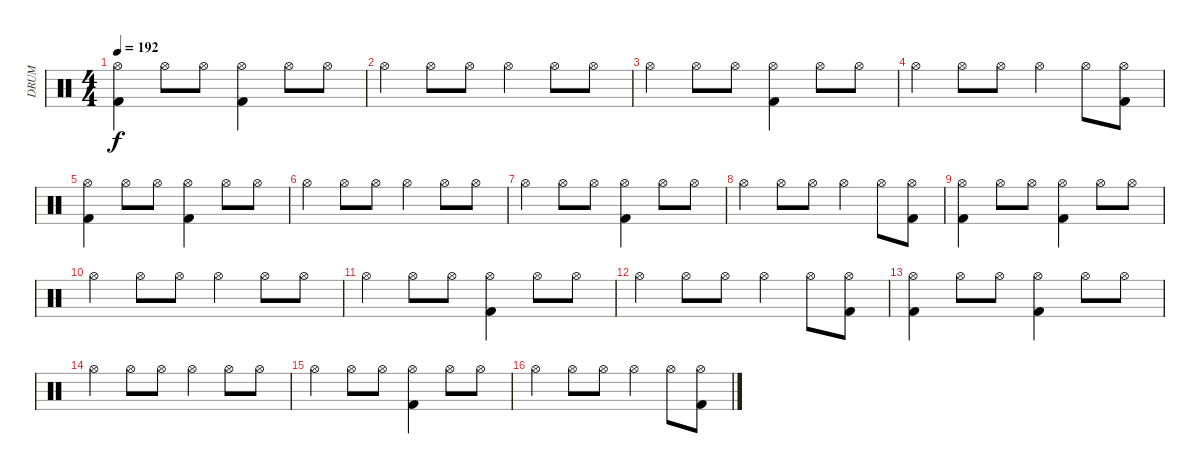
\track ("     DRUM" "     DRUM") {instrument percussion}
\staff {score}
\articulation defaults
\ts (4 4)
\tempo 192
\clef neutral
\ks c
("Kick (hit) 2" "Hi-Hat (open)").4{dy f} "Hi-Hat (open)".8 "Hi-Hat (open)".8 ("Kick (hit) 2" "Hi-Hat (open)").4 "Hi-Hat (open)".8 "Hi-Hat (open)".8 |
"Hi-Hat (open)".4 "Hi-Hat (open)".8 "Hi-Hat (open)".8 "Hi-Hat (open)".4 "Hi-Hat (open)".8 "Hi-Hat (open)".8 |
"Hi-Hat (open)".4 "Hi-Hat (open)".8 "Hi-Hat (open)".8 ("Kick (hit) 2" "Hi-Hat (open)").4 "Hi-Hat (open)".8 "Hi-Hat (open)".8 |
"Hi-Hat (open)".4 "Hi-Hat (open)".8 "Hi-Hat (open)".8 "Hi-Hat (open)".4 "Hi-Hat (open)".8 ("Kick (hit) 2" "Hi-Hat (open)").8 |
("Kick (hit) 2" "Hi-Hat (open)").4 "Hi-Hat (open)".8 "Hi-Hat (open)".8 ("Kick (hit) 2" "Hi-Hat (open)").4 "Hi-Hat (open)".8 "Hi-Hat (open)".8 |
"Hi-Hat (open)".4 "Hi-Hat (open)".8 "Hi-Hat (open)".8 "Hi-Hat (open)".4 "Hi-Hat (open)".8 "Hi-Hat (open)".8 |
"Hi-Hat (open)".4 "Hi-Hat (open)".8 "Hi-Hat (open)".8 ("Kick (hit) 2" "Hi-Hat (open)").4 "Hi-Hat (open)".8 "Hi-Hat (open)".8 |
"Hi-Hat (open)".4 "Hi-Hat (open)".8 "Hi-Hat (open)".8 "Hi-Hat (open)".4 "Hi-Hat (open)".8 ("Kick (hit) 2" "Hi-Hat (open)").8 |
("Kick (hit) 2" "Hi-Hat (open)").4 "Hi-Hat (open)".8 "Hi-Hat (open)".8 ("Kick (hit) 2" "Hi-Hat (open)").4 "Hi-Hat (open)".8 "Hi-Hat (open)".8 |
"Hi-Hat (open)".4 "Hi-Hat (open)".8 "Hi-Hat (open)".8 "Hi-Hat (open)".4 "Hi-Hat (open)".8 "Hi-Hat (open)".8 |
"Hi-Hat (open)".4 "Hi-Hat (open)".8 "Hi-Hat (open)".8 ("Kick (hit) 2" "Hi-Hat (open)").4 "Hi-Hat (open)".8 "Hi-Hat (open)".8 |
"Hi-Hat (open)".4 "Hi-Hat (open)".8 "Hi-Hat (open)".8 "Hi-Hat (open)".4 "Hi-Hat (open)".8 ("Kick (hit) 2" "Hi-Hat (open)").8 |
("Kick (hit) 2" "Hi-Hat (open)").4 "Hi-Hat (open)".8 "Hi-Hat (open)".8 ("Kick (hit) 2" "Hi-Hat (open)").4 "Hi-Hat (open)".8 "Hi-Hat (open)".8 |
"Hi-Hat (open)".4 "Hi-Hat (open)".8 "Hi-Hat (open)".8 "Hi-Hat (open)".4 "Hi-Hat (open)".8 "Hi-Hat (open)".8 |
"Hi-Hat (open)".4{volume 11} "Hi-Hat (open)".8{volume 10} "Hi-Hat (open)".8{volume 10} ("Kick (hit) 2" "Hi-Hat (open)").4{volume 10} "Hi-Hat (open)".8{volume 10} "Hi-Hat (open)".8{volume 10} |
"Hi-Hat (open)".4{volume 10} "Hi-Hat (open)".8{volume 10} "Hi-Hat (open)".8{volume 9} "Hi-Hat (open)".4{volume 9} "Hi-Hat (open)".8{volume 9} ("Kick (hit) 2" "Hi-Hat (open)").8{volume 9}
